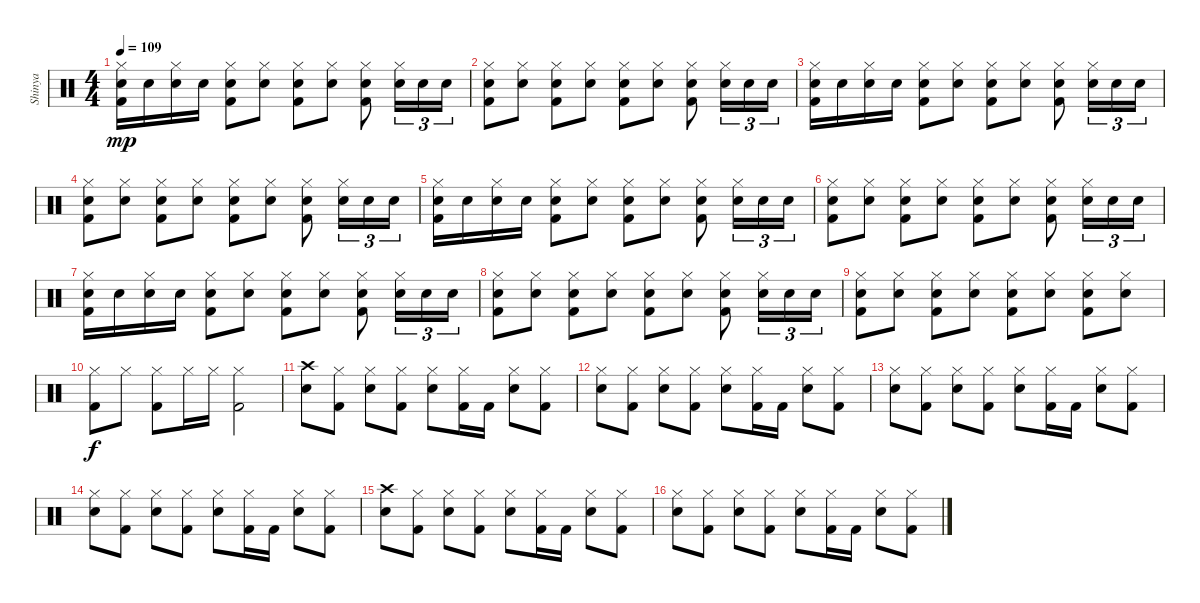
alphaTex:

\track ("Shinya" "Shinya") {instrument percussion}
\staff {score}
\articulation defaults
\ts (4 4)
\tempo 109
\clef neutral
\ks c
("Hi-Hat (closed)" "Snare (hit) 2" "Kick (hit) 2").16{dy mp} "Snare (hit) 2".16 ("Hi-Hat (closed)" "Snare (hit) 2").16 "Snare (hit) 2".16 ("Hi-Hat (closed)" "Snare (hit) 2" "Kick (hit) 2").8 ("Hi-Hat (closed)" "Snare (hit) 2").8 ("Hi-Hat (closed)" "Snare (hit) 2" "Kick (hit) 2").8 ("Hi-Hat (closed)" "Snare (hit) 2").8 ("Hi-Hat (closed)" "Snare (hit) 2" "Kick (hit) 2").8 ("Hi-Hat (closed)" "Snare (hit) 2").16{tu (3 2)} "Snare (hit) 2".16{tu (3 2)} "Snare (hit) 2".16{tu (3 2)} |
("Hi-Hat (closed)" "Snare (hit) 2" "Kick (hit) 2").8 ("Hi-Hat (closed)" "Snare (hit) 2").8 ("Hi-Hat (closed)" "Snare (hit) 2" "Kick (hit) 2").8 ("Hi-Hat (closed)" "Snare (hit) 2").8 ("Hi-Hat (closed)" "Snare (hit) 2" "Kick (hit) 2").8 ("Hi-Hat (closed)" "Snare (hit) 2").8 ("Hi-Hat (closed)" "Snare (hit) 2" "Kick (hit) 2").8 ("Hi-Hat (closed)" "Snare (hit) 2").16{tu (3 2)} "Snare (hit) 2".16{tu (3 2)} "Snare (hit) 2".16{tu (3 2)} |
("Hi-Hat (closed)" "Snare (hit) 2" "Kick (hit) 2").16 "Snare (hit) 2".16 ("Hi-Hat (closed)" "Snare (hit) 2").16 "Snare (hit) 2".16 ("Hi-Hat (closed)" "Snare (hit) 2" "Kick (hit) 2").8 ("Hi-Hat (closed)" "Snare (hit) 2").8 ("Hi-Hat (closed)" "Snare (hit) 2" "Kick (hit) 2").8 ("Hi-Hat (closed)" "Snare (hit) 2").8 ("Hi-Hat (closed)" "Snare (hit) 2" "Kick (hit) 2").8 ("Hi-Hat (closed)" "Snare (hit) 2").16{tu (3 2)} "Snare (hit) 2".16{tu (3 2)} "Snare (hit) 2".16{tu (3 2)} |
("Hi-Hat (closed)" "Snare (hit) 2" "Kick (hit) 2").8 ("Hi-Hat (closed)" "Snare (hit) 2").8 ("Hi-Hat (closed)" "Snare (hit) 2" "Kick (hit) 2").8 ("Hi-Hat (closed)" "Snare (hit) 2").8 ("Hi-Hat (closed)" "Snare (hit) 2" "Kick (hit) 2").8 ("Hi-Hat (closed)" "Snare (hit) 2").8 ("Hi-Hat (closed)" "Snare (hit) 2" "Kick (hit) 2").8 ("Hi-Hat (closed)" "Snare (hit) 2").16{tu (3 2)} "Snare (hit) 2".16{tu (3 2)} "Snare (hit) 2".16{tu (3 2)} |
("Hi-Hat (closed)" "Snare (hit) 2" "Kick (hit) 2").16 "Snare (hit) 2".16 ("Hi-Hat (closed)" "Snare (hit) 2").16 "Snare (hit) 2".16 ("Hi-Hat (closed)" "Snare (hit) 2" "Kick (hit) 2").8 ("Hi-Hat (closed)" "Snare (hit) 2").8 ("Hi-Hat (closed)" "Snare (hit) 2" "Kick (hit) 2").8 ("Hi-Hat (closed)" "Snare (hit) 2").8 ("Hi-Hat (closed)" "Snare (hit) 2" "Kick (hit) 2").8 ("Hi-Hat (closed)" "Snare (hit) 2").16{tu (3 2)} "Snare (hit) 2".16{tu (3 2)} "Snare (hit) 2".16{tu (3 2)} |
("Hi-Hat (closed)" "Snare (hit) 2" "Kick (hit) 2").8 ("Hi-Hat (closed)" "Snare (hit) 2").8 ("Hi-Hat (closed)" "Snare (hit) 2" "Kick (hit) 2").8 ("Hi-Hat (closed)" "Snare (hit) 2").8 ("Hi-Hat (closed)" "Snare (hit) 2" "Kick (hit) 2").8 ("Hi-Hat (closed)" "Snare (hit) 2").8 ("Hi-Hat (closed)" "Snare (hit) 2" "Kick (hit) 2").8 ("Hi-Hat (closed)" "Snare (hit) 2").16{tu (3 2)} "Snare (hit) 2".16{tu (3 2)} "Snare (hit) 2".16{tu (3 2)} |
("Hi-Hat (closed)" "Snare (hit) 2" "Kick (hit) 2").16 "Snare (hit) 2".16 ("Hi-Hat (closed)" "Snare (hit) 2").16 "Snare (hit) 2".16 ("Hi-Hat (closed)" "Snare (hit) 2" "Kick (hit) 2").8 ("Hi-Hat (closed)" "Snare (hit) 2").8 ("Hi-Hat (closed)" "Snare (hit) 2" "Kick (hit) 2").8 ("Hi-Hat (closed)" "Snare (hit) 2").8 ("Hi-Hat (closed)" "Snare (hit) 2" "Kick (hit) 2").8 ("Hi-Hat (closed)" "Snare (hit) 2").16{tu (3 2)} "Snare (hit) 2".16{tu (3 2)} "Snare (hit) 2".16{tu (3 2)} |
("Hi-Hat (closed)" "Snare (hit) 2" "Kick (hit) 2").8 ("Hi-Hat (closed)" "Snare (hit) 2").8 ("Hi-Hat (closed)" "Snare (hit) 2" "Kick (hit) 2").8 ("Hi-Hat (closed)" "Snare (hit) 2").8 ("Hi-Hat (closed)" "Snare (hit) 2" "Kick (hit) 2").8 ("Hi-Hat (closed)" "Snare (hit) 2").8 ("Hi-Hat (closed)" "Snare (hit) 2" "Kick (hit) 2").8 ("Hi-Hat (closed)" "Snare (hit) 2").16{tu (3 2)} "Snare (hit) 2".16{tu (3 2)} "Snare (hit) 2".16{tu (3 2)} |
("Hi-Hat (closed)" "Snare (hit) 2" "Kick (hit) 2").8 ("Hi-Hat (closed)" "Snare (hit) 2").8 ("Hi-Hat (closed)" "Snare (hit) 2" "Kick (hit) 2").8 ("Hi-Hat (closed)" "Snare (hit) 2").8 ("Hi-Hat (closed)" "Snare (hit) 2" "Kick (hit) 2").8 ("Hi-Hat (closed)" "Snare (hit) 2").8 ("Hi-Hat (closed)" "Snare (hit) 2" "Kick (hit) 2").8 ("Hi-Hat (closed)" "Snare (hit) 2").8 |
("Hi-Hat (closed)" "Kick (hit) 2").8{dy f} "Hi-Hat (closed)".8 ("Hi-Hat (closed)" "Kick (hit) 2").8 "Hi-Hat (closed)".16 "Hi-Hat (closed)".16 ("Hi-Hat (closed)" "Kick (hit) 2").2 |
("Crash high (hit)" "Snare (hit) 2").8 ("Hi-Hat (closed)" "Kick (hit) 2").8 ("Hi-Hat (closed)" "Snare (hit) 2").8 ("Hi-Hat (closed)" "Kick (hit) 2").8 ("Hi-Hat (closed)" "Snare (hit) 2").8 ("Hi-Hat (closed)" "Kick (hit) 2").16 "Kick (hit) 2".16 ("Hi-Hat (closed)" "Snare (hit) 2").8 ("Hi-Hat (closed)" "Kick (hit) 2").8 |
("Hi-Hat (closed)" "Snare (hit) 2").8 ("Hi-Hat (closed)" "Kick (hit) 2").8 ("Hi-Hat (closed)" "Snare (hit) 2").8 ("Hi-Hat (closed)" "Kick (hit) 2").8 ("Hi-Hat (closed)" "Snare (hit) 2").8 ("Hi-Hat (closed)" "Kick (hit) 2").16 "Kick (hit) 2".16 ("Hi-Hat (closed)" "Snare (hit) 2").8 ("Hi-Hat (closed)" "Kick (hit) 2").8 |
("Hi-Hat (closed)" "Snare (hit) 2").8 ("Hi-Hat (closed)" "Kick (hit) 2").8 ("Hi-Hat (closed)" "Snare (hit) 2").8 ("Hi-Hat (closed)" "Kick (hit) 2").8 ("Hi-Hat (closed)" "Snare (hit) 2").8 ("Hi-Hat (closed)" "Kick (hit) 2").16 "Kick (hit) 2".16 ("Hi-Hat (closed)" "Snare (hit) 2").8 ("Hi-Hat (closed)" "Kick (hit) 2").8 |
("Hi-Hat (closed)" "Snare (hit) 2").8 ("Hi-Hat (closed)" "Kick (hit) 2").8 ("Hi-Hat (closed)" "Snare (hit) 2").8 ("Hi-Hat (closed)" "Kick (hit) 2").8 ("Hi-Hat (closed)" "Snare (hit) 2").8 ("Hi-Hat (closed)" "Kick (hit) 2").16 "Kick (hit) 2".16 ("Hi-Hat (closed)" "Snare (hit) 2").8 ("Hi-Hat (closed)" "Kick (hit) 2").8 |
("Crash high (hit)" "Snare (hit) 2").8 ("Hi-Hat (closed)" "Kick (hit) 2").8 ("Hi-Hat (closed)" "Snare (hit) 2").8 ("Hi-Hat (closed)" "Kick (hit) 2").8 ("Hi-Hat (closed)" "Snare (hit) 2").8 ("Hi-Hat (closed)" "Kick (hit) 2").16 "Kick (hit) 2".16 ("Hi-Hat (closed)" "Snare (hit) 2").8 ("Hi-Hat (closed)" "Kick (hit) 2").8 |
("Hi-Hat (closed)" "Snare (hit) 2").8 ("Hi-Hat (closed)" "Kick (hit) 2").8 ("Hi-Hat (closed)" "Snare (hit) 2").8 ("Hi-Hat (closed)" "Kick (hit) 2").8 ("Hi-Hat (closed)" "Snare (hit) 2").8 ("Hi-Hat (closed)" "Kick (hit) 2").16 "Kick (hit) 2".16 ("Hi-Hat (closed)" "Snare (hit) 2").8 ("Hi-Hat (closed)" "Kick (hit) 2").8
